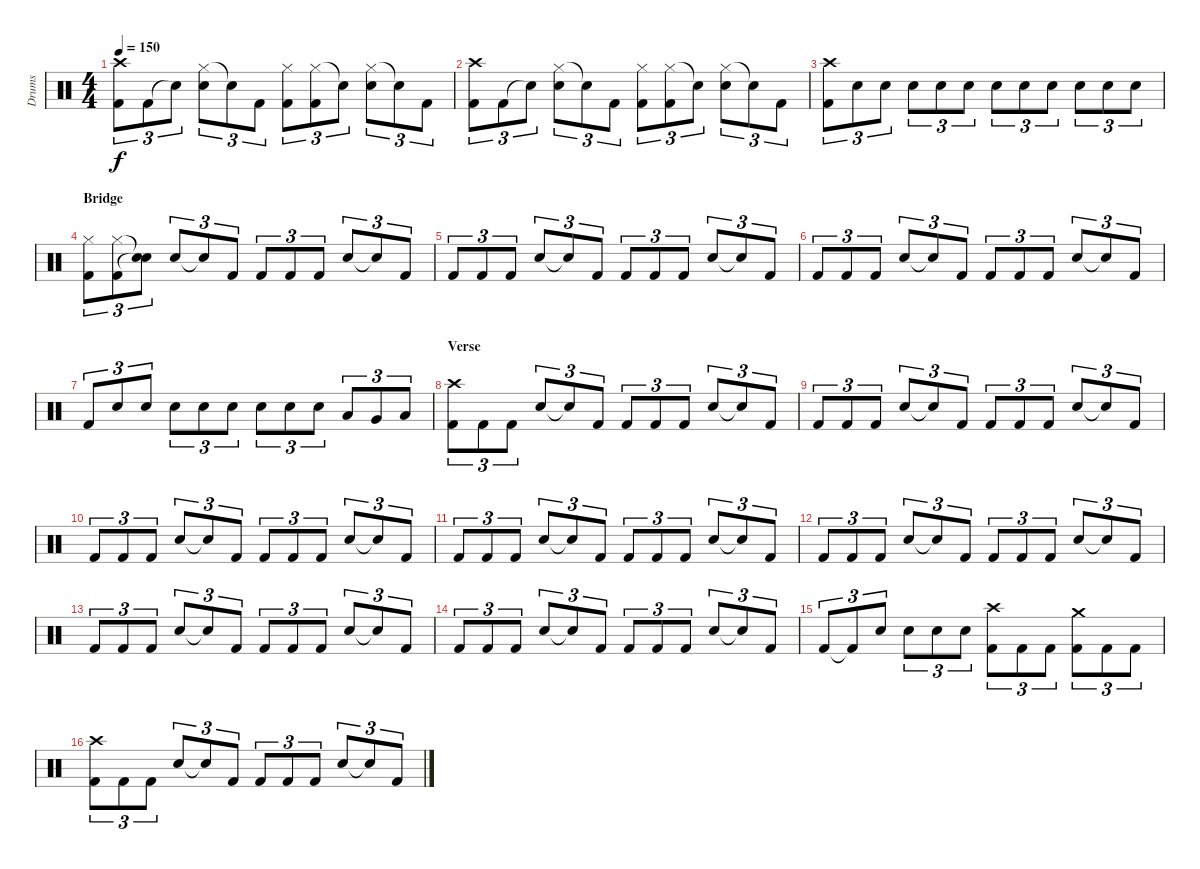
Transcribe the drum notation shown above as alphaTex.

\track ("Drums" "Drums") {instrument percussion}
\staff {score}
\articulation defaults
\ts (4 4)
\tempo 150
\clef neutral
\ks c
("Crash high (hit)" "Kick (hit) 2").8{tu (3 2) dy f} "Kick (hit) 2".8{tu (3 2)} "Snare (hit)"{t}.8{tu (3 2)} ("Hi-Hat (closed)" "Electric Snare (hit)").8{tu (3 2)} "Snare (hit)"{t}.8{tu (3 2)} "Kick (hit) 2".8{tu (3 2)} ("Hi-Hat (closed)" "Kick (hit) 2").8{tu (3 2)} ("Hi-Hat (closed)" "Kick (hit) 2").8{tu (3 2)} "Snare (hit)"{t}.8{tu (3 2)} ("Hi-Hat (closed)" "Electric Snare (hit)").8{tu (3 2)} "Snare (hit)"{t}.8{tu (3 2)} "Kick (hit) 2".8{tu (3 2)} |
("Crash high (hit)" "Kick (hit) 2").8{tu (3 2)} "Kick (hit) 2".8{tu (3 2)} "Snare (hit)"{t}.8{tu (3 2)} ("Hi-Hat (closed)" "Electric Snare (hit)").8{tu (3 2)} "Snare (hit)"{t}.8{tu (3 2)} "Kick (hit) 2".8{tu (3 2)} ("Hi-Hat (closed)" "Kick (hit) 2").8{tu (3 2)} ("Hi-Hat (closed)" "Kick (hit) 2").8{tu (3 2)} "Snare (hit)"{t}.8{tu (3 2)} ("Hi-Hat (closed)" "Electric Snare (hit)").8{tu (3 2)} "Snare (hit)"{t}.8{tu (3 2)} "Kick (hit) 2".8{tu (3 2)} |
("Crash high (hit)" "Kick (hit) 2").8{tu (3 2)} "Electric Snare (hit)".8{tu (3 2)} "Electric Snare (hit)".8{tu (3 2)} "Electric Snare (hit)".8{tu (3 2)} "Electric Snare (hit)".8{tu (3 2)} "Electric Snare (hit)".8{tu (3 2)} "Electric Snare (hit)".8{tu (3 2)} "Electric Snare (hit)".8{tu (3 2)} "Electric Snare (hit)".8{tu (3 2)} "Electric Snare (hit)".8{tu (3 2)} "Electric Snare (hit)".8{tu (3 2)} "Electric Snare (hit)".8{tu (3 2)} |
\section ("" "Bridge")
("Hi-Hat (closed)" "Kick (hit) 2").8{tu (3 2)} ("Hi-Hat (closed)" "Kick (hit) 2").8{tu (3 2)} ("Snare (hit)"{t} "Snare (hit)"{t}).8{tu (3 2)} "Electric Snare (hit)".8{tu (3 2)} "Snare (hit)"{t}.8{tu (3 2)} "Kick (hit) 2".8{tu (3 2)} "Kick (hit) 2".8{tu (3 2)} "Kick (hit) 2".8{tu (3 2)} "Kick (hit) 2".8{tu (3 2)} "Electric Snare (hit)".8{tu (3 2)} "Snare (hit)"{t}.8{tu (3 2)} "Kick (hit) 2".8{tu (3 2)} |
"Kick (hit) 2".8{tu (3 2)} "Kick (hit) 2".8{tu (3 2)} "Kick (hit) 2".8{tu (3 2)} "Electric Snare (hit)".8{tu (3 2)} "Snare (hit)"{t}.8{tu (3 2)} "Kick (hit) 2".8{tu (3 2)} "Kick (hit) 2".8{tu (3 2)} "Kick (hit) 2".8{tu (3 2)} "Kick (hit) 2".8{tu (3 2)} "Electric Snare (hit)".8{tu (3 2)} "Snare (hit)"{t}.8{tu (3 2)} "Kick (hit) 2".8{tu (3 2)} |
"Kick (hit) 2".8{tu (3 2)} "Kick (hit) 2".8{tu (3 2)} "Kick (hit) 2".8{tu (3 2)} "Electric Snare (hit)".8{tu (3 2)} "Snare (hit)"{t}.8{tu (3 2)} "Kick (hit) 2".8{tu (3 2)} "Kick (hit) 2".8{tu (3 2)} "Kick (hit) 2".8{tu (3 2)} "Kick (hit) 2".8{tu (3 2)} "Electric Snare (hit)".8{tu (3 2)} "Snare (hit)"{t}.8{tu (3 2)} "Kick (hit) 2".8{tu (3 2)} |
"Kick (hit) 2".8{tu (3 2)} "Electric Snare (hit)".8{tu (3 2)} "Electric Snare (hit)".8{tu (3 2)} "Electric Snare (hit)".8{tu (3 2)} "Electric Snare (hit)".8{tu (3 2)} "Electric Snare (hit)".8{tu (3 2)} "Electric Snare (hit)".8{tu (3 2)} "Electric Snare (hit)".8{tu (3 2)} "Electric Snare (hit)".8{tu (3 2)} "Low Tom (hit)".8{tu (3 2)} "Very Low Tom (hit)".8{tu (3 2)} "Low Floor Tom (hit)".8{tu (3 2)} |
\section ("" "Verse")
("Crash high (hit)" "Kick (hit) 2").8{tu (3 2)} "Kick (hit) 2".8{tu (3 2)} "Kick (hit) 2".8{tu (3 2)} "Electric Snare (hit)".8{tu (3 2)} "Snare (hit)"{t}.8{tu (3 2)} "Kick (hit) 2".8{tu (3 2)} "Kick (hit) 2".8{tu (3 2)} "Kick (hit) 2".8{tu (3 2)} "Kick (hit) 2".8{tu (3 2)} "Electric Snare (hit)".8{tu (3 2)} "Snare (hit)"{t}.8{tu (3 2)} "Kick (hit) 2".8{tu (3 2)} |
"Kick (hit) 2".8{tu (3 2)} "Kick (hit) 2".8{tu (3 2)} "Kick (hit) 2".8{tu (3 2)} "Electric Snare (hit)".8{tu (3 2)} "Snare (hit)"{t}.8{tu (3 2)} "Kick (hit) 2".8{tu (3 2)} "Kick (hit) 2".8{tu (3 2)} "Kick (hit) 2".8{tu (3 2)} "Kick (hit) 2".8{tu (3 2)} "Electric Snare (hit)".8{tu (3 2)} "Snare (hit)"{t}.8{tu (3 2)} "Kick (hit) 2".8{tu (3 2)} |
"Kick (hit) 2".8{tu (3 2)} "Kick (hit) 2".8{tu (3 2)} "Kick (hit) 2".8{tu (3 2)} "Electric Snare (hit)".8{tu (3 2)} "Snare (hit)"{t}.8{tu (3 2)} "Kick (hit) 2".8{tu (3 2)} "Kick (hit) 2".8{tu (3 2)} "Kick (hit) 2".8{tu (3 2)} "Kick (hit) 2".8{tu (3 2)} "Electric Snare (hit)".8{tu (3 2)} "Snare (hit)"{t}.8{tu (3 2)} "Kick (hit) 2".8{tu (3 2)} |
"Kick (hit) 2".8{tu (3 2)} "Kick (hit) 2".8{tu (3 2)} "Kick (hit) 2".8{tu (3 2)} "Electric Snare (hit)".8{tu (3 2)} "Snare (hit)"{t}.8{tu (3 2)} "Kick (hit) 2".8{tu (3 2)} "Kick (hit) 2".8{tu (3 2)} "Kick (hit) 2".8{tu (3 2)} "Kick (hit) 2".8{tu (3 2)} "Electric Snare (hit)".8{tu (3 2)} "Snare (hit)"{t}.8{tu (3 2)} "Kick (hit) 2".8{tu (3 2)} |
"Kick (hit) 2".8{tu (3 2)} "Kick (hit) 2".8{tu (3 2)} "Kick (hit) 2".8{tu (3 2)} "Electric Snare (hit)".8{tu (3 2)} "Snare (hit)"{t}.8{tu (3 2)} "Kick (hit) 2".8{tu (3 2)} "Kick (hit) 2".8{tu (3 2)} "Kick (hit) 2".8{tu (3 2)} "Kick (hit) 2".8{tu (3 2)} "Electric Snare (hit)".8{tu (3 2)} "Snare (hit)"{t}.8{tu (3 2)} "Kick (hit) 2".8{tu (3 2)} |
"Kick (hit) 2".8{tu (3 2)} "Kick (hit) 2".8{tu (3 2)} "Kick (hit) 2".8{tu (3 2)} "Electric Snare (hit)".8{tu (3 2)} "Snare (hit)"{t}.8{tu (3 2)} "Kick (hit) 2".8{tu (3 2)} "Kick (hit) 2".8{tu (3 2)} "Kick (hit) 2".8{tu (3 2)} "Kick (hit) 2".8{tu (3 2)} "Electric Snare (hit)".8{tu (3 2)} "Snare (hit)"{t}.8{tu (3 2)} "Kick (hit) 2".8{tu (3 2)} |
"Kick (hit) 2".8{tu (3 2)} "Kick (hit) 2".8{tu (3 2)} "Kick (hit) 2".8{tu (3 2)} "Electric Snare (hit)".8{tu (3 2)} "Snare (hit)"{t}.8{tu (3 2)} "Kick (hit) 2".8{tu (3 2)} "Kick (hit) 2".8{tu (3 2)} "Kick (hit) 2".8{tu (3 2)} "Kick (hit) 2".8{tu (3 2)} "Electric Snare (hit)".8{tu (3 2)} "Snare (hit)"{t}.8{tu (3 2)} "Kick (hit) 2".8{tu (3 2)} |
"Kick (hit) 2".8{tu (3 2)} "Kick (hit) 2"{t}.8{tu (3 2)} "Electric Snare (hit)".8{tu (3 2)} "Electric Snare (hit)".8{tu (3 2)} "Electric Snare (hit)".8{tu (3 2)} "Electric Snare (hit)".8{tu (3 2)} ("Crash high (hit)" "Kick (hit) 2").8{tu (3 2)} "Kick (hit) 2".8{tu (3 2)} "Kick (hit) 2".8{tu (3 2)} ("Crash medium (hit)" "Kick (hit) 2").8{tu (3 2)} "Kick (hit) 2".8{tu (3 2)} "Kick (hit) 2".8{tu (3 2)} |
("Crash high (hit)" "Kick (hit) 2").8{tu (3 2)} "Kick (hit) 2".8{tu (3 2)} "Kick (hit) 2".8{tu (3 2)} "Electric Snare (hit)".8{tu (3 2)} "Snare (hit)"{t}.8{tu (3 2)} "Kick (hit) 2".8{tu (3 2)} "Kick (hit) 2".8{tu (3 2)} "Kick (hit) 2".8{tu (3 2)} "Kick (hit) 2".8{tu (3 2)} "Electric Snare (hit)".8{tu (3 2)} "Snare (hit)"{t}.8{tu (3 2)} "Kick (hit) 2".8{tu (3 2)}
